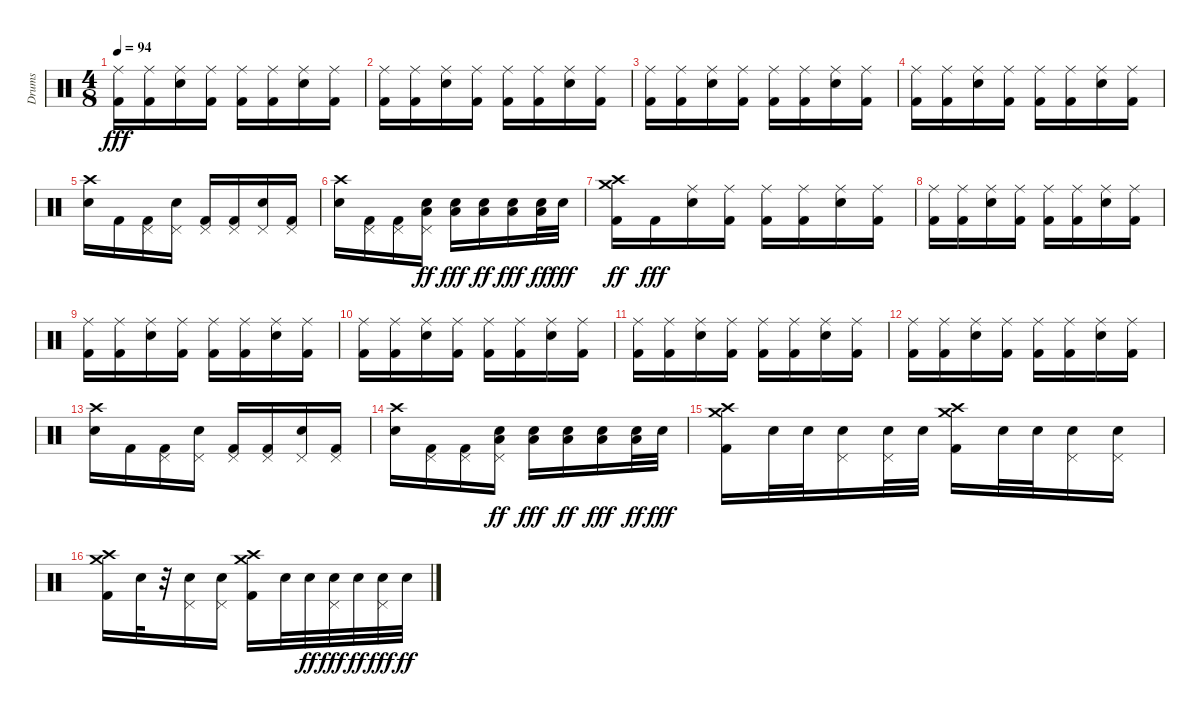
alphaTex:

\track ("Drums" "Drums") {instrument percussion}
\staff {score}
\articulation defaults
\ts (4 8)
\tempo 94
\clef neutral
\ks c
("Ride (middle)" "Kick (hit) 2").16{dy fff} ("Ride (middle)" "Kick (hit) 2").16 ("Electric Snare (hit)" "Ride (middle)").16 ("Ride (middle)" "Kick (hit) 2").16 ("Kick (hit) 2" "Ride (middle)").16 ("Kick (hit) 2" "Ride (middle)").16 ("Ride (middle)" "Electric Snare (hit)").16 ("Ride (middle)" "Kick (hit) 2").16 |
("Kick (hit) 2" "Ride (middle)").16 ("Ride (middle)" "Kick (hit) 2").16 ("Electric Snare (hit)" "Ride (middle)").16 ("Ride (middle)" "Kick (hit) 2").16 ("Kick (hit) 2" "Ride (middle)").16 ("Kick (hit) 2" "Ride (middle)").16 ("Electric Snare (hit)" "Ride (middle)").16 ("Kick (hit) 2" "Ride (middle)").16 |
("Ride (middle)" "Kick (hit) 2").16 ("Ride (middle)" "Kick (hit) 2").16 ("Electric Snare (hit)" "Ride (middle)").16 ("Kick (hit) 2" "Ride (middle)").16 ("Kick (hit) 2" "Ride (middle)").16 ("Ride (middle)" "Kick (hit) 2").16 ("Ride (middle)" "Electric Snare (hit)").16 ("Ride (middle)" "Kick (hit) 2").16 |
("Ride (middle)" "Kick (hit) 2").16 ("Ride (middle)" "Kick (hit) 2").16 ("Ride (middle)" "Electric Snare (hit)").16 ("Ride (middle)" "Kick (hit) 2").16 ("Ride (middle)" "Kick (hit) 2").16 ("Ride (middle)" "Kick (hit) 2").16 ("Electric Snare (hit)" "Ride (middle)").16 ("Ride (middle)" "Kick (hit) 2").16 |
("Crash high (hit)" "Electric Snare (hit)").16 "Kick (hit) 2".16 ("Pedal Hi-Hat (hit)" "Kick (hit) 2").16 ("Electric Snare (hit)" "Pedal Hi-Hat (hit)").16 ("Pedal Hi-Hat (hit)" "Kick (hit) 2").16 ("Pedal Hi-Hat (hit)" "Kick (hit) 2").16 ("Pedal Hi-Hat (hit)" "Electric Snare (hit)").16 ("Kick (hit) 2" "Pedal Hi-Hat (hit)").16 |
("Crash high (hit)" "Electric Snare (hit)").16 ("Pedal Hi-Hat (hit)" "Kick (hit) 2").16 ("Kick (hit) 2" "Pedal Hi-Hat (hit)").16 ("Electric Snare (hit)" "Low Floor Tom (hit)" "Pedal Hi-Hat (hit)").16{dy ff} ("Low Floor Tom (hit)" "Electric Snare (hit)").16{dy fff} ("Electric Snare (hit)" "Low Floor Tom (hit)").16{dy ff} ("Low Floor Tom (hit)" "Electric Snare (hit)").16{dy fff} ("Electric Snare (hit)" "Low Floor Tom (hit)").32{dy ff} "Electric Snare (hit)".32{dy fff} |
("Crash medium (hit)" "Kick (hit) 2" "Crash high (hit)").16{dy ff} "Kick (hit) 2".16{dy fff} ("Ride (middle)" "Electric Snare (hit)").16 ("Ride (middle)" "Kick (hit) 2").16 ("Ride (middle)" "Kick (hit) 2").16 ("Ride (middle)" "Kick (hit) 2").16 ("Ride (middle)" "Electric Snare (hit)").16 ("Ride (middle)" "Kick (hit) 2").16 |
("Ride (middle)" "Kick (hit) 2").16 ("Ride (middle)" "Kick (hit) 2").16 ("Ride (middle)" "Electric Snare (hit)").16 ("Ride (middle)" "Kick (hit) 2").16 ("Kick (hit) 2" "Ride (middle)").16 ("Ride (middle)" "Kick (hit) 2").16 ("Ride (middle)" "Electric Snare (hit)").16 ("Ride (middle)" "Kick (hit) 2").16 |
("Ride (middle)" "Kick (hit) 2").16 ("Ride (middle)" "Kick (hit) 2").16 ("Electric Snare (hit)" "Ride (middle)").16 ("Ride (middle)" "Kick (hit) 2").16 ("Kick (hit) 2" "Ride (middle)").16 ("Kick (hit) 2" "Ride (middle)").16 ("Ride (middle)" "Electric Snare (hit)").16 ("Ride (middle)" "Kick (hit) 2").16 |
("Kick (hit) 2" "Ride (middle)").16 ("Ride (middle)" "Kick (hit) 2").16 ("Electric Snare (hit)" "Ride (middle)").16 ("Ride (middle)" "Kick (hit) 2").16 ("Kick (hit) 2" "Ride (middle)").16 ("Kick (hit) 2" "Ride (middle)").16 ("Electric Snare (hit)" "Ride (middle)").16 ("Kick (hit) 2" "Ride (middle)").16 |
("Ride (middle)" "Kick (hit) 2").16 ("Ride (middle)" "Kick (hit) 2").16 ("Electric Snare (hit)" "Ride (middle)").16 ("Kick (hit) 2" "Ride (middle)").16 ("Kick (hit) 2" "Ride (middle)").16 ("Ride (middle)" "Kick (hit) 2").16 ("Ride (middle)" "Electric Snare (hit)").16 ("Ride (middle)" "Kick (hit) 2").16 |
("Ride (middle)" "Kick (hit) 2").16 ("Ride (middle)" "Kick (hit) 2").16 ("Ride (middle)" "Electric Snare (hit)").16 ("Ride (middle)" "Kick (hit) 2").16 ("Ride (middle)" "Kick (hit) 2").16 ("Ride (middle)" "Kick (hit) 2").16 ("Electric Snare (hit)" "Ride (middle)").16 ("Ride (middle)" "Kick (hit) 2").16 |
("Crash high (hit)" "Electric Snare (hit)").16 "Kick (hit) 2".16 ("Pedal Hi-Hat (hit)" "Kick (hit) 2").16 ("Electric Snare (hit)" "Pedal Hi-Hat (hit)").16 ("Pedal Hi-Hat (hit)" "Kick (hit) 2").16 ("Pedal Hi-Hat (hit)" "Kick (hit) 2").16 ("Pedal Hi-Hat (hit)" "Electric Snare (hit)").16 ("Kick (hit) 2" "Pedal Hi-Hat (hit)").16 |
("Crash high (hit)" "Electric Snare (hit)").16 ("Pedal Hi-Hat (hit)" "Kick (hit) 2").16 ("Kick (hit) 2" "Pedal Hi-Hat (hit)").16 ("Electric Snare (hit)" "Low Floor Tom (hit)" "Pedal Hi-Hat (hit)").16{dy ff} ("Low Floor Tom (hit)" "Electric Snare (hit)").16{dy fff} ("Electric Snare (hit)" "Low Floor Tom (hit)").16{dy ff} ("Low Floor Tom (hit)" "Electric Snare (hit)").16{dy fff} ("Electric Snare (hit)" "Low Floor Tom (hit)").32{dy ff} "Electric Snare (hit)".32{dy fff} |
("Crash high (hit)" "Kick (hit) 2" "Crash medium (hit)").16 "Electric Snare (hit)".32 "Electric Snare (hit)".32 ("Electric Snare (hit)" "Pedal Hi-Hat (hit)").16 ("Electric Snare (hit)" "Pedal Hi-Hat (hit)").32 "Electric Snare (hit)".32 ("Kick (hit) 2" "Crash high (hit)" "Crash medium (hit)").16 "Electric Snare (hit)".32 "Electric Snare (hit)".32 ("Electric Snare (hit)" "Pedal Hi-Hat (hit)").16 ("Pedal Hi-Hat (hit)" "Electric Snare (hit)").16 |
("Crash high (hit)" "Crash medium (hit)" "Kick (hit) 2").16 "Electric Snare (hit)".32 r.32 ("Electric Snare (hit)" "Pedal Hi-Hat (hit)").16 ("Electric Snare (hit)" "Pedal Hi-Hat (hit)").16 ("Crash high (hit)" "Kick (hit) 2" "Crash medium (hit)").16 "Electric Snare (hit)".32 "Electric Snare (hit)".32{dy ff} ("Electric Snare (hit)" "Pedal Hi-Hat (hit)").32{dy fff} "Electric Snare (hit)".32{dy ff} ("Electric Snare (hit)" "Pedal Hi-Hat (hit)").32{dy fff} "Electric Snare (hit)".32{dy ff}
